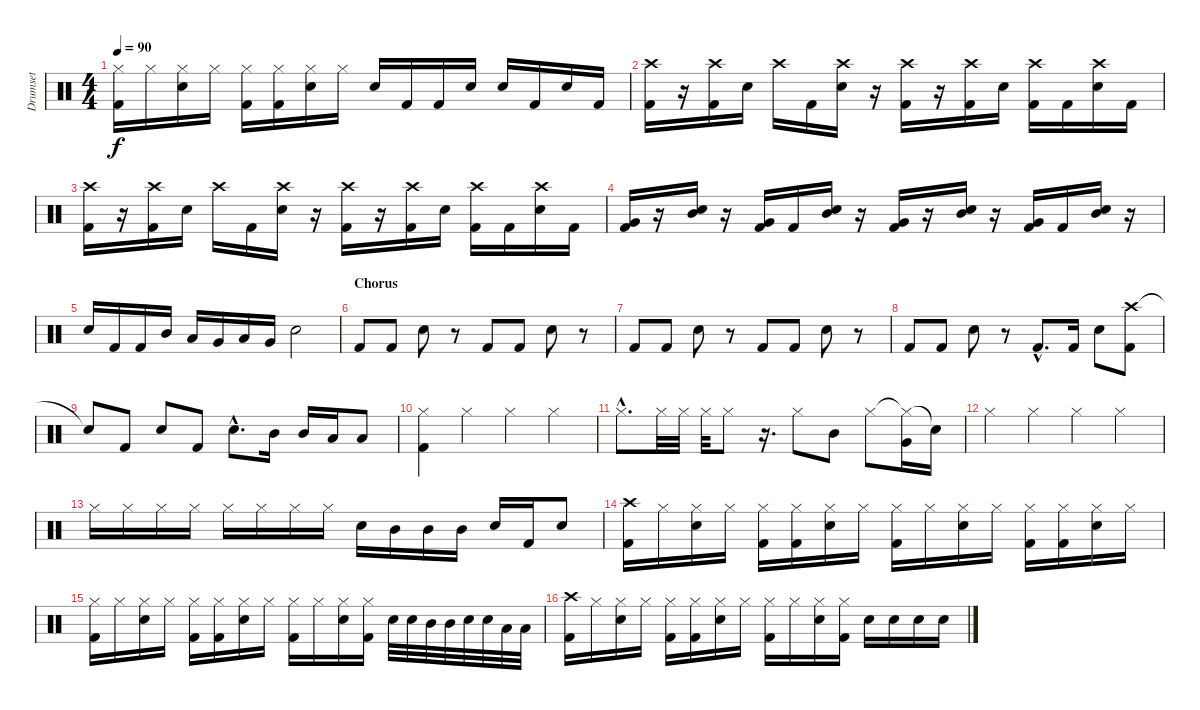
\track ("Drumset" "Drumset") {instrument percussion}
\staff {score}
\articulation defaults
\ts (4 4)
\tempo 90
\clef neutral
\ks c
("Hi-Hat (closed)" "Kick (hit) 2").16{dy f} "Hi-Hat (closed)".16 ("Hi-Hat (closed)" "Electric Snare (hit)").16 "Hi-Hat (closed)".16 ("Hi-Hat (closed)" "Kick (hit) 2").16 ("Hi-Hat (closed)" "Kick (hit) 2").16 ("Hi-Hat (closed)" "Electric Snare (hit)").16 "Hi-Hat (closed)".16 "Electric Snare (hit)".16 "Kick (hit) 2".16 "Kick (hit) 2".16 "Electric Snare (hit)".16 "Electric Snare (hit)".16 "Kick (hit) 2".16 "Electric Snare (hit)".16 "Kick (hit) 2".16 |
("Crash high (hit)" "Kick (hit) 2").16 r.16 ("Crash high (hit)" "Kick (hit) 2").16 "Electric Snare (hit)".16 "Crash high (hit)".16 "Kick (hit) 2".16 ("Crash high (hit)" "Electric Snare (hit)").16 r.16 ("Crash high (hit)" "Kick (hit) 2").16 r.16 ("Crash high (hit)" "Kick (hit) 2").16 "Electric Snare (hit)".16 ("Crash high (hit)" "Kick (hit) 2").16 "Kick (hit) 2".16 ("Crash high (hit)" "Electric Snare (hit)").16 "Kick (hit) 2".16 |
("Crash high (hit)" "Kick (hit) 2").16 r.16 ("Crash high (hit)" "Kick (hit) 2").16 "Electric Snare (hit)".16 "Crash high (hit)".16 "Kick (hit) 2".16 ("Crash high (hit)" "Electric Snare (hit)").16 r.16 ("Crash high (hit)" "Kick (hit) 2").16 r.16 ("Crash high (hit)" "Kick (hit) 2").16 "Electric Snare (hit)".16 ("Crash high (hit)" "Kick (hit) 2").16 "Kick (hit) 2".16 ("Crash high (hit)" "Electric Snare (hit)").16 "Kick (hit) 2".16 |
("Very Low Tom (hit)" "Kick (hit) 2").16 r.16 ("Mid Tom (hit)" "Electric Snare (hit)").16 r.16 ("Very Low Tom (hit)" "Kick (hit) 2").16 "Kick (hit) 2".16 ("Mid Tom (hit)" "Electric Snare (hit)").16 r.16 ("Very Low Tom (hit)" "Kick (hit) 2").16 r.16 ("Mid Tom (hit)" "Electric Snare (hit)").16 r.16 ("Very Low Tom (hit)" "Kick (hit) 2").16 "Kick (hit) 2".16 ("Mid Tom (hit)" "Electric Snare (hit)").16 r.16 |
"Electric Snare (hit)".16 "Kick (hit) 2".16 "Kick (hit) 2".16 "Mid Tom (hit)".16 "Low Tom (hit)".16 "Very Low Tom (hit)".16 "Low Tom (hit)".16 "Very Low Tom (hit)".16 "Electric Snare (hit)".2 |
\section ("" "Chorus")
"Kick (hit) 2".8 "Kick (hit) 2".8 "Electric Snare (hit)".8 r.8 "Kick (hit) 2".8 "Kick (hit) 2".8 "Electric Snare (hit)".8 r.8 |
"Kick (hit) 2".8 "Kick (hit) 2".8 "Electric Snare (hit)".8 r.8 "Kick (hit) 2".8 "Kick (hit) 2".8 "Electric Snare (hit)".8 r.8 |
"Kick (hit) 2".8 "Kick (hit) 2".8 "Electric Snare (hit)".8 r.8 "Kick (hit) 2"{hac}.8{d} "Kick (hit) 2".16 "Electric Snare (hit)".8 ("Crash high (hit)" "Kick (hit) 2").8 |
"Snare (hit)"{t}.8 "Kick (hit) 2".8 "Electric Snare (hit)".8 "Kick (hit) 2".8 "Electric Snare (hit)"{hac}.8{d} "Mid Tom (hit)".16 "Mid Tom (hit)".16 "Low Tom (hit)".16 "Low Tom (hit)".8 |
("Hi-Hat (closed)" "Kick (hit) 2").4 "Hi-Hat (closed)".4 "Hi-Hat (closed)".4 "Hi-Hat (closed)".4 |
"Hi-Hat (closed)"{hac}.8{d} "Hi-Hat (closed)".32 "Hi-Hat (closed)".32 "Hi-Hat (closed)".32 "Hi-Hat (closed)".8 r.16{d} "Hi-Hat (closed)".8 "Mid Tom (hit)".8 "Hi-Hat (closed)".8 ("Hi-Hat (closed)"{t} "Very Low Tom (hit)").16 "Snare (hit)"{t}.16 |
"Hi-Hat (closed)".4 "Hi-Hat (closed)".4 "Hi-Hat (closed)".4 "Hi-Hat (closed)".4 |
"Hi-Hat (closed)".16 "Hi-Hat (closed)".16 "Hi-Hat (closed)".16 "Hi-Hat (closed)".16 "Hi-Hat (closed)".16 "Hi-Hat (closed)".16 "Hi-Hat (closed)".16 "Hi-Hat (closed)".16 "Electric Snare (hit)".16 "Mid Tom (hit)".16 "Mid Tom (hit)".16 "Mid Tom (hit)".16 "Electric Snare (hit)".16 "Kick (hit) 2".16 "Electric Snare (hit)".8 |
("Crash high (hit)" "Kick (hit) 2").16 "Hi-Hat (closed)".16 ("Hi-Hat (closed)" "Electric Snare (hit)").16 "Hi-Hat (closed)".16 ("Hi-Hat (closed)" "Kick (hit) 2").16 ("Hi-Hat (closed)" "Kick (hit) 2").16 ("Hi-Hat (closed)" "Electric Snare (hit)").16 "Hi-Hat (closed)".16 ("Hi-Hat (closed)" "Kick (hit) 2").16 "Hi-Hat (closed)".16 ("Hi-Hat (closed)" "Electric Snare (hit)").16 "Hi-Hat (closed)".16 ("Hi-Hat (closed)" "Kick (hit) 2").16 ("Hi-Hat (closed)" "Kick (hit) 2").16 ("Hi-Hat (closed)" "Electric Snare (hit)").16 "Hi-Hat (closed)".16 |
("Hi-Hat (closed)" "Kick (hit) 2").16 "Hi-Hat (closed)".16 ("Hi-Hat (closed)" "Electric Snare (hit)").16 "Hi-Hat (closed)".16 ("Hi-Hat (closed)" "Kick (hit) 2").16 ("Hi-Hat (closed)" "Kick (hit) 2").16 ("Hi-Hat (closed)" "Electric Snare (hit)").16 "Hi-Hat (closed)".16 ("Hi-Hat (closed)" "Kick (hit) 2").16 "Hi-Hat (closed)".16 ("Hi-Hat (closed)" "Electric Snare (hit)").16 ("Hi-Hat (closed)" "Kick (hit) 2").16 "Electric Snare (hit)".32 "Electric Snare (hit)".32 "Mid Tom (hit)".32 "Mid Tom (hit)".32 "Electric Snare (hit)".32 "Electric Snare (hit)".32 "Low Tom (hit)".32 "Low Tom (hit)".32 |
("Crash high (hit)" "Kick (hit) 2").16 "Hi-Hat (closed)".16 ("Hi-Hat (closed)" "Electric Snare (hit)").16 "Hi-Hat (closed)".16 ("Hi-Hat (closed)" "Kick (hit) 2").16 ("Hi-Hat (closed)" "Kick (hit) 2").16 ("Hi-Hat (closed)" "Electric Snare (hit)").16 "Hi-Hat (closed)".16 ("Hi-Hat (closed)" "Kick (hit) 2").16 "Hi-Hat (closed)".16 ("Hi-Hat (closed)" "Electric Snare (hit)").16 ("Hi-Hat (closed)" "Kick (hit) 2").16 "Electric Snare (hit)".16 "Electric Snare (hit)".16 "Electric Snare (hit)".16 "Electric Snare (hit)".16
